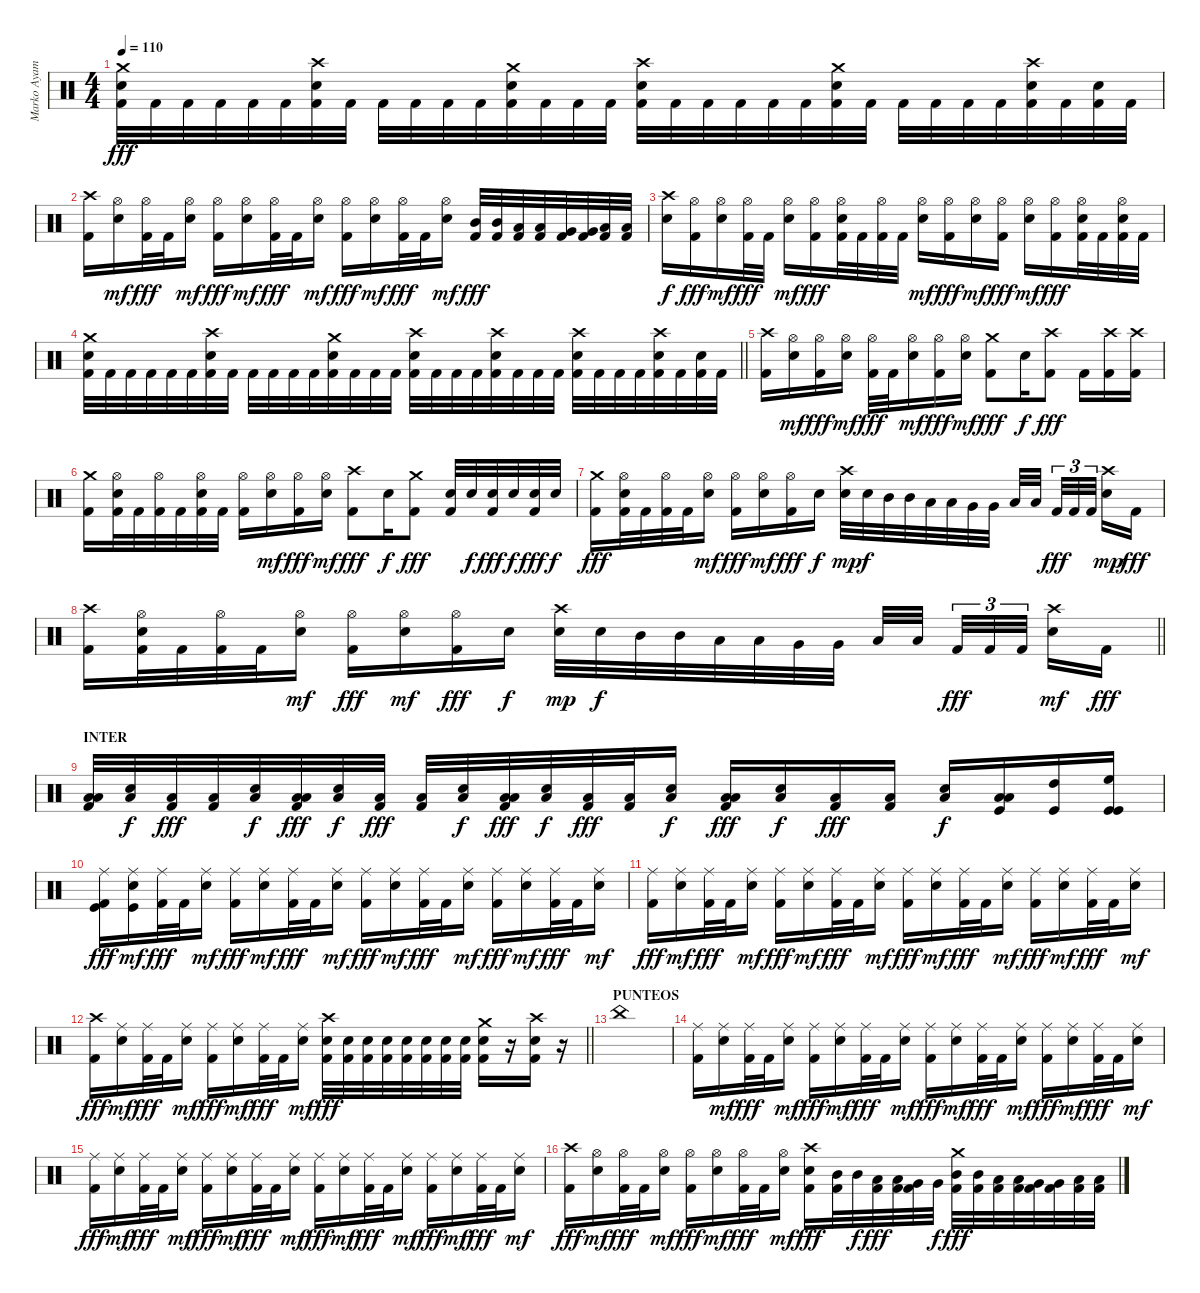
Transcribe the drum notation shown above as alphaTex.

\track ("Marko Ayamani" "Marko Ayam") {instrument percussion}
\staff {score}
\articulation defaults
\ts (4 4)
\tempo 110
\clef neutral
\ks c
("Crash medium (hit)" "Snare (hit) 2" "Kick (hit) 2").32{dy fff} "Kick (hit) 2".32 "Kick (hit) 2".32 "Kick (hit) 2".32 "Kick (hit) 2".32 "Kick (hit) 2".32 ("Crash high (hit)" "Snare (hit) 2" "Kick (hit) 2").32 "Kick (hit) 2".32 "Kick (hit) 2".32 "Kick (hit) 2".32 "Kick (hit) 2".32 "Kick (hit) 2".32 ("Crash medium (hit)" "Snare (hit) 2" "Kick (hit) 2").32 "Kick (hit) 2".32 "Kick (hit) 2".32 "Kick (hit) 2".32 ("Crash high (hit)" "Snare (hit) 2" "Kick (hit) 2").32 "Kick (hit) 2".32 "Kick (hit) 2".32 "Kick (hit) 2".32 "Kick (hit) 2".32 "Kick (hit) 2".32 ("Crash medium (hit)" "Snare (hit) 2" "Kick (hit) 2").32 "Kick (hit) 2".32 "Kick (hit) 2".32 "Kick (hit) 2".32 "Kick (hit) 2".32 "Kick (hit) 2".32 ("Crash high (hit)" "Snare (hit) 2" "Kick (hit) 2").32 "Kick (hit) 2".32 ("Snare (hit) 2" "Kick (hit) 2").32 "Kick (hit) 2".32 |
("Crash high (hit)" "Kick (hit) 2").16 ("Hi-Hat (open)" "Snare (hit) 2").16{dy mf} ("Hi-Hat (open)" "Kick (hit) 2").32{dy fff} "Kick (hit) 2".32 ("Hi-Hat (open)" "Snare (hit) 2").16{dy mf} ("Hi-Hat (open)" "Kick (hit) 2").16{dy fff} ("Hi-Hat (open)" "Snare (hit) 2").16{dy mf} ("Hi-Hat (open)" "Kick (hit) 2").32{dy fff} "Kick (hit) 2".32 ("Hi-Hat (open)" "Snare (hit) 2").16{dy mf} ("Hi-Hat (open)" "Kick (hit) 2").16{dy fff} ("Hi-Hat (open)" "Snare (hit) 2").16{dy mf} ("Hi-Hat (open)" "Kick (hit) 2").32{dy fff} "Kick (hit) 2".32 ("Hi-Hat (open)" "Snare (hit) 2").16{dy mf} ("Mid Tom (hit)" "Kick (hit) 2").32{dy fff} ("Mid Tom (hit)" "Kick (hit) 2").32 ("Low Tom (hit)" "Kick (hit) 2").32 ("Low Tom (hit)" "Kick (hit) 2").32 ("Very Low Tom (hit)" "Kick (hit) 2").32 ("Very Low Tom (hit)" "Kick (hit) 2").32 ("Low Floor Tom (hit)" "Kick (hit) 2").32 ("Low Floor Tom (hit)" "Kick (hit) 2").32 |
("Crash high (hit)" "Snare (hit) 2").16{dy f} ("Hi-Hat (open)" "Kick (hit) 2").16{dy fff} ("Hi-Hat (open)" "Snare (hit) 2").16{dy mf} ("Hi-Hat (open)" "Kick (hit) 2").32{dy fff} "Kick (hit) 2".32 ("Hi-Hat (open)" "Snare (hit) 2").16{dy mf} ("Hi-Hat (open)" "Kick (hit) 2").16{dy fff} ("Hi-Hat (open)" "Snare (hit) 2" "Kick (hit) 2").32 "Kick (hit) 2".32 ("Hi-Hat (open)" "Kick (hit) 2").32 "Kick (hit) 2".32 ("Hi-Hat (open)" "Snare (hit) 2").16{dy mf} ("Hi-Hat (open)" "Kick (hit) 2").16{dy fff} ("Hi-Hat (open)" "Snare (hit) 2").16{dy mf} ("Hi-Hat (open)" "Kick (hit) 2").16{dy fff} ("Hi-Hat (open)" "Snare (hit) 2").16{dy mf} ("Hi-Hat (open)" "Kick (hit) 2").16{dy fff} ("Hi-Hat (open)" "Snare (hit) 2" "Kick (hit) 2").32 "Kick (hit) 2".32 ("Hi-Hat (open)" "Snare (hit) 2" "Kick (hit) 2").32 "Kick (hit) 2".32 |
\barLineRight lightlight
("Crash medium (hit)" "Snare (hit) 2" "Kick (hit) 2").32 "Kick (hit) 2".32 "Kick (hit) 2".32 "Kick (hit) 2".32 "Kick (hit) 2".32 "Kick (hit) 2".32 ("Crash high (hit)" "Snare (hit) 2" "Kick (hit) 2").32 "Kick (hit) 2".32 "Kick (hit) 2".32 "Kick (hit) 2".32 "Kick (hit) 2".32 "Kick (hit) 2".32 ("Crash medium (hit)" "Snare (hit) 2" "Kick (hit) 2").32 "Kick (hit) 2".32 "Kick (hit) 2".32 "Kick (hit) 2".32 ("Crash high (hit)" "Snare (hit) 2" "Kick (hit) 2").32 "Kick (hit) 2".32 "Kick (hit) 2".32 "Kick (hit) 2".32 ("Crash high (hit)" "Snare (hit) 2" "Kick (hit) 2").32 "Kick (hit) 2".32 "Kick (hit) 2".32 "Kick (hit) 2".32 ("Crash high (hit)" "Snare (hit) 2" "Kick (hit) 2").32 "Kick (hit) 2".32 "Kick (hit) 2".32 "Kick (hit) 2".32 ("Crash high (hit)" "Snare (hit) 2" "Kick (hit) 2").32 "Kick (hit) 2".32 ("Snare (hit) 2" "Kick (hit) 2").32 "Kick (hit) 2".32 |
("Crash high (hit)" "Kick (hit) 2").16 ("Hi-Hat (open)" "Snare (hit) 2").16{dy mf} ("Hi-Hat (open)" "Kick (hit) 2").16{dy fff} ("Hi-Hat (open)" "Snare (hit) 2").16{dy mf} ("Hi-Hat (open)" "Kick (hit) 2").32{dy fff} "Kick (hit) 2".32 ("Hi-Hat (open)" "Snare (hit) 2").16{dy mf} ("Hi-Hat (open)" "Kick (hit) 2").16{dy fff} ("Hi-Hat (open)" "Snare (hit) 2").16{dy mf} ("Crash medium (hit)" "Kick (hit) 2").8{dy fff} "Snare (hit) 2".16{dy f} ("Crash high (hit)" "Kick (hit) 2").8{dy fff} "Kick (hit) 2".16 ("Crash high (hit)" "Kick (hit) 2").16 ("Crash high (hit)" "Kick (hit) 2").16 |
("Crash medium (hit)" "Kick (hit) 2").16 ("Hi-Hat (open)" "Snare (hit) 2" "Kick (hit) 2").32 "Kick (hit) 2".32 ("Hi-Hat (open)" "Kick (hit) 2").32 "Kick (hit) 2".32 ("Hi-Hat (open)" "Snare (hit) 2" "Kick (hit) 2").32 "Kick (hit) 2".32 ("Hi-Hat (open)" "Kick (hit) 2").16 ("Hi-Hat (open)" "Snare (hit) 2").16{dy mf} ("Hi-Hat (open)" "Kick (hit) 2").16{dy fff} ("Hi-Hat (open)" "Snare (hit) 2").16{dy mf} ("Crash high (hit)" "Kick (hit) 2").8{dy fff} "Snare (hit) 2".16{dy f} ("Crash medium (hit)" "Kick (hit) 2").8{dy fff} ("Snare (hit) 2" "Kick (hit) 2").32 "Snare (hit) 2".32{dy f} ("Snare (hit) 2" "Kick (hit) 2").32{dy fff} "Snare (hit) 2".32{dy f} ("Snare (hit) 2" "Kick (hit) 2").32{dy fff} "Snare (hit) 2".32{dy f} |
("Crash medium (hit)" "Kick (hit) 2").16{dy fff} ("Hi-Hat (open)" "Snare (hit) 2" "Kick (hit) 2").32 "Kick (hit) 2".32 ("Hi-Hat (open)" "Kick (hit) 2").32 "Kick (hit) 2".32 ("Hi-Hat (open)" "Snare (hit) 2").16{dy mf} ("Hi-Hat (open)" "Kick (hit) 2").16{dy fff} ("Hi-Hat (open)" "Snare (hit) 2").16{dy mf} ("Hi-Hat (open)" "Kick (hit) 2").16{dy fff} "Snare (hit) 2".16{dy f} ("Crash high (hit)" "Snare (hit) 2").32{dy mp} "Snare (hit) 2".32{dy f} "Mid Tom (hit)".32 "Mid Tom (hit)".32 "Low Tom (hit)".32 "Low Tom (hit)".32 "Very Low Tom (hit)".32 "Very Low Tom (hit)".32 "Low Floor Tom (hit)".32 "Low Floor Tom (hit)".32{beam splitsecondary} "Kick (hit) 2".32{tu (3 2) dy fff} "Kick (hit) 2".32{tu (3 2)} "Kick (hit) 2".32{tu (3 2) beam splitsecondary} ("Crash high (hit)" "Snare (hit) 2").16{dy mp} "Kick (hit) 2".16{dy fff} |
\barLineRight lightlight
("Crash high (hit)" "Kick (hit) 2").16 ("Hi-Hat (open)" "Snare (hit) 2" "Kick (hit) 2").32 "Kick (hit) 2".32 ("Hi-Hat (open)" "Kick (hit) 2").32 "Kick (hit) 2".32 ("Hi-Hat (open)" "Snare (hit) 2").16{dy mf} ("Hi-Hat (open)" "Kick (hit) 2").16{dy fff} ("Hi-Hat (open)" "Snare (hit) 2").16{dy mf} ("Hi-Hat (open)" "Kick (hit) 2").16{dy fff} "Snare (hit) 2".16{dy f} ("Crash high (hit)" "Snare (hit) 2").32{dy mp} "Snare (hit) 2".32{dy f} "Mid Tom (hit)".32 "Mid Tom (hit)".32 "Low Tom (hit)".32 "Low Tom (hit)".32 "Very Low Tom (hit)".32 "Very Low Tom (hit)".32 "Low Floor Tom (hit)".32 "Low Floor Tom (hit)".32{beam splitsecondary} "Kick (hit) 2".32{tu (3 2) dy fff} "Kick (hit) 2".32{tu (3 2)} "Kick (hit) 2".32{tu (3 2) beam splitsecondary} ("Crash high (hit)" "Snare (hit) 2").16{dy mf} "Kick (hit) 2".16{dy fff} |
\section ("" "INTER")
("Low Tom (hit)" "Low Floor Tom (hit)" "Kick (hit) 2").32 ("Low Tom (hit)" "Snare (hit) 2").32{dy f} ("Low Tom (hit)" "Kick (hit) 2").32{dy fff} ("Low Tom (hit)" "Kick (hit) 2").32 ("Low Tom (hit)" "Snare (hit) 2").32{dy f} ("Low Tom (hit)" "Low Floor Tom (hit)" "Kick (hit) 2").32{dy fff} ("Low Tom (hit)" "Snare (hit) 2").32{dy f} ("Low Tom (hit)" "Kick (hit) 2").32{dy fff} ("Low Tom (hit)" "Kick (hit) 2").32 ("Low Tom (hit)" "Snare (hit) 2").32{dy f} ("Low Tom (hit)" "Low Floor Tom (hit)" "Kick (hit) 2").32{dy fff} ("Low Tom (hit)" "Snare (hit) 2").32{dy f} ("Low Tom (hit)" "Kick (hit) 2").32{dy fff} ("Low Tom (hit)" "Kick (hit) 2").32 ("Low Tom (hit)" "Snare (hit) 2").16{dy f} ("Low Tom (hit)" "Low Floor Tom (hit)" "Kick (hit) 2").16{dy fff} ("Low Tom (hit)" "Snare (hit) 2").16{dy f} ("Low Tom (hit)" "Kick (hit) 2").16{dy fff} ("Low Tom (hit)" "Kick (hit) 2").16 ("Low Tom (hit)" "Snare (hit) 2").16{dy f} ("Low Floor Tom (hit)" "Kick (hit)" "Low Tom (hit)").16 ("Kick (hit)" "High Tom (hit)").16 ("Kick (hit)" "Kick (hit)" "High Floor Tom (hit)").16 |
("Kick (hit)" "Ride (middle)" "Kick (hit) 2").16{dy fff} ("Kick (hit)" "Ride (middle)" "Snare (hit) 2").16{dy mf} ("Ride (middle)" "Kick (hit) 2").32{dy fff} "Kick (hit) 2".32 ("Ride (middle)" "Snare (hit) 2").16{dy mf} ("Ride (middle)" "Kick (hit) 2").16{dy fff} ("Ride (middle)" "Snare (hit) 2").16{dy mf} ("Ride (middle)" "Kick (hit) 2").32{dy fff} "Kick (hit) 2".32 ("Ride (middle)" "Snare (hit) 2").16{dy mf} ("Ride (middle)" "Kick (hit) 2").16{dy fff} ("Ride (middle)" "Snare (hit) 2").16{dy mf} ("Ride (middle)" "Kick (hit) 2").32{dy fff} "Kick (hit) 2".32 ("Ride (middle)" "Snare (hit) 2").16{dy mf} ("Ride (middle)" "Kick (hit) 2").16{dy fff} ("Ride (middle)" "Snare (hit) 2").16{dy mf} ("Ride (middle)" "Kick (hit) 2").32{dy fff} "Kick (hit) 2".32 ("Ride (middle)" "Snare (hit) 2").16{dy mf} |
("Ride (middle)" "Kick (hit) 2").16{dy fff} ("Ride (middle)" "Snare (hit) 2").16{dy mf} ("Ride (middle)" "Kick (hit) 2").32{dy fff} "Kick (hit) 2".32 ("Ride (middle)" "Snare (hit) 2").16{dy mf} ("Ride (middle)" "Kick (hit) 2").16{dy fff} ("Ride (middle)" "Snare (hit) 2").16{dy mf} ("Ride (middle)" "Kick (hit) 2").32{dy fff} "Kick (hit) 2".32 ("Ride (middle)" "Snare (hit) 2").16{dy mf} ("Ride (middle)" "Kick (hit) 2").16{dy fff} ("Ride (middle)" "Snare (hit) 2").16{dy mf} ("Ride (middle)" "Kick (hit) 2").32{dy fff} "Kick (hit) 2".32 ("Ride (middle)" "Snare (hit) 2").16{dy mf} ("Ride (middle)" "Kick (hit) 2").16{dy fff} ("Ride (middle)" "Snare (hit) 2").16{dy mf} ("Ride (middle)" "Kick (hit) 2").32{dy fff} "Kick (hit) 2".32 ("Ride (middle)" "Snare (hit) 2").16{dy mf} |
\barLineRight lightlight
("Crash high (hit)" "Kick (hit) 2").16{dy fff} ("Ride (middle)" "Snare (hit) 2").16{dy mf} ("Ride (middle)" "Kick (hit) 2").32{dy fff} "Kick (hit) 2".32 ("Ride (middle)" "Snare (hit) 2").16{dy mf} ("Ride (middle)" "Kick (hit) 2").16{dy fff} ("Ride (middle)" "Snare (hit) 2").16{dy mf} ("Ride (middle)" "Kick (hit) 2").32{dy fff} "Kick (hit) 2".32 ("Ride (middle)" "Snare (hit) 2").16{dy mf} ("Crash high (hit)" "Snare (hit) 2" "Kick (hit) 2").32{dy fff} ("Snare (hit) 2" "Kick (hit) 2").32 ("Snare (hit) 2" "Kick (hit) 2").32 ("Snare (hit) 2" "Kick (hit) 2").32 ("Snare (hit) 2" "Kick (hit) 2").32 ("Snare (hit) 2" "Kick (hit) 2").32 ("Snare (hit) 2" "Kick (hit) 2").32 ("Snare (hit) 2" "Kick (hit) 2").32 ("Crash medium (hit)" "Snare (hit) 2" "Kick (hit) 2").16 r.16 ("Crash high (hit)" "Snare (hit) 2" "Kick (hit) 2").16 r.16 |
\section ("" "PUNTEOS")
"China (hit)".1 |
("Ride (middle)" "Kick (hit) 2").16 ("Ride (middle)" "Snare (hit) 2").16{dy mf} ("Ride (middle)" "Kick (hit) 2").32{dy fff} "Kick (hit) 2".32 ("Ride (middle)" "Snare (hit) 2").16{dy mf} ("Ride (middle)" "Kick (hit) 2").16{dy fff} ("Ride (middle)" "Snare (hit) 2").16{dy mf} ("Ride (middle)" "Kick (hit) 2").32{dy fff} "Kick (hit) 2".32 ("Ride (middle)" "Snare (hit) 2").16{dy mf} ("Ride (middle)" "Kick (hit) 2").16{dy fff} ("Ride (middle)" "Snare (hit) 2").16{dy mf} ("Ride (middle)" "Kick (hit) 2").32{dy fff} "Kick (hit) 2".32 ("Ride (middle)" "Snare (hit) 2").16{dy mf} ("Ride (middle)" "Kick (hit) 2").16{dy fff} ("Ride (middle)" "Snare (hit) 2").16{dy mf} ("Ride (middle)" "Kick (hit) 2").32{dy fff} "Kick (hit) 2".32 ("Ride (middle)" "Snare (hit) 2").16{dy mf} |
("Ride (middle)" "Kick (hit) 2").16{dy fff} ("Ride (middle)" "Snare (hit) 2").16{dy mf} ("Ride (middle)" "Kick (hit) 2").32{dy fff} "Kick (hit) 2".32 ("Ride (middle)" "Snare (hit) 2").16{dy mf} ("Ride (middle)" "Kick (hit) 2").16{dy fff} ("Ride (middle)" "Snare (hit) 2").16{dy mf} ("Ride (middle)" "Kick (hit) 2").32{dy fff} "Kick (hit) 2".32 ("Ride (middle)" "Snare (hit) 2").16{dy mf} ("Ride (middle)" "Kick (hit) 2").16{dy fff} ("Ride (middle)" "Snare (hit) 2").16{dy mf} ("Ride (middle)" "Kick (hit) 2").32{dy fff} "Kick (hit) 2".32 ("Ride (middle)" "Snare (hit) 2").16{dy mf} ("Ride (middle)" "Kick (hit) 2").16{dy fff} ("Ride (middle)" "Snare (hit) 2").16{dy mf} ("Ride (middle)" "Kick (hit) 2").32{dy fff} "Kick (hit) 2".32 ("Ride (middle)" "Snare (hit) 2").16{dy mf} |
("Crash high (hit)" "Kick (hit) 2").16{dy fff} ("Hi-Hat (open)" "Snare (hit) 2").16{dy mf} ("Hi-Hat (open)" "Kick (hit) 2").32{dy fff} "Kick (hit) 2".32 ("Hi-Hat (open)" "Snare (hit) 2").16{dy mf} ("Hi-Hat (open)" "Kick (hit) 2").16{dy fff} ("Hi-Hat (open)" "Snare (hit) 2").16{dy mf} ("Hi-Hat (open)" "Kick (hit) 2").32{dy fff} "Kick (hit) 2".32 ("Hi-Hat (open)" "Snare (hit) 2").16{dy mf} ("Crash high (hit)" "Snare (hit) 2" "Kick (hit) 2").16{dy fff} ("Mid Tom (hit)" "Kick (hit) 2").32 "Mid Tom (hit)".32{dy f} ("Low Tom (hit)" "Kick (hit) 2").32{dy fff} ("Low Tom (hit)" "Kick (hit) 2").32 ("Very Low Tom (hit)" "Kick (hit) 2").32 "Very Low Tom (hit)".32{dy f} ("Crash medium (hit)" "Mid Tom (hit)" "Kick (hit) 2").32{dy fff} ("Mid Tom (hit)" "Kick (hit) 2").32 ("Low Tom (hit)" "Kick (hit) 2").32 ("Low Tom (hit)" "Kick (hit) 2").32 ("Very Low Tom (hit)" "Kick (hit) 2").32 ("Very Low Tom (hit)" "Kick (hit) 2").32 ("Low Floor Tom (hit)" "Kick (hit) 2").32 ("Low Floor Tom (hit)" "Kick (hit) 2").32
